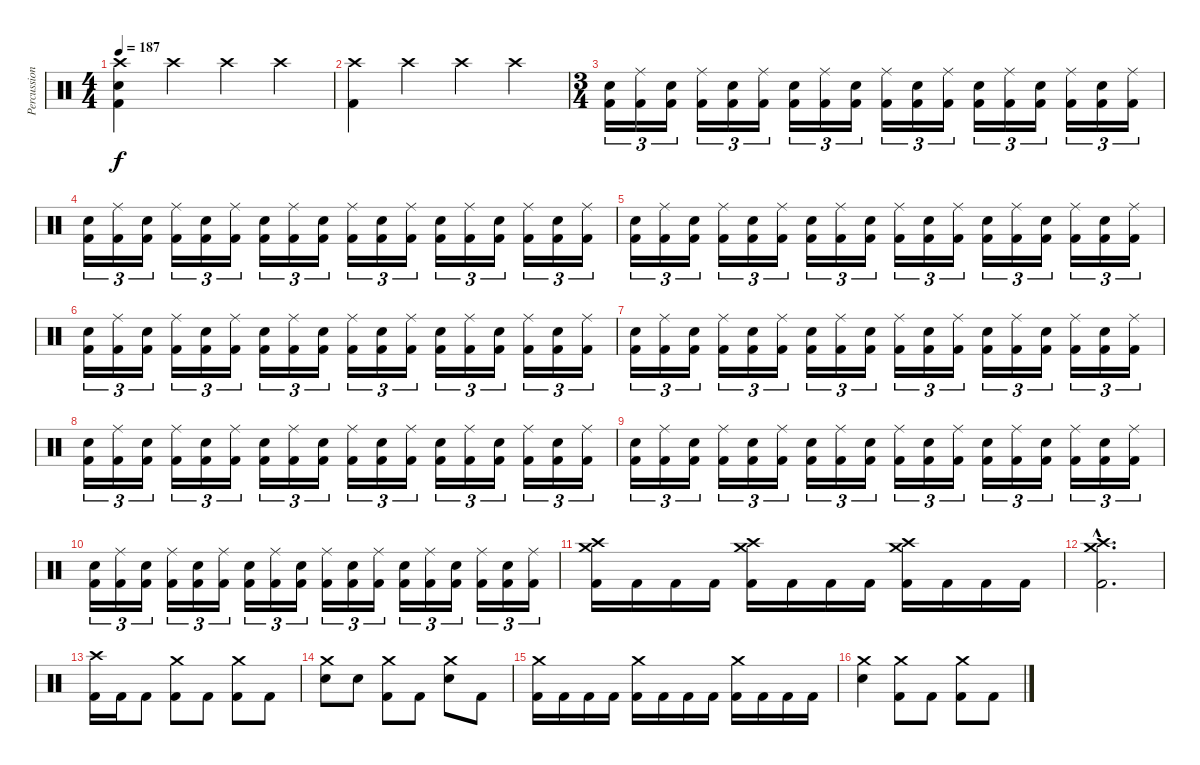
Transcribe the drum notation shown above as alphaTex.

\track ("Percussion" "Percussion") {instrument percussion}
\staff {score}
\articulation defaults
\ts (4 4)
\tempo 187
\clef neutral
\ks c
("Crash high (hit)" "Electric Snare (hit)" "Kick (hit) 2").4{dy f} "Crash high (hit)".4 "Crash high (hit)".4 "Crash high (hit)".4 |
("Crash high (hit)" "Kick (hit) 2").4 "Crash high (hit)".4 "Crash high (hit)".4 "Crash high (hit)".4 |
\ts (3 4)
("Electric Snare (hit)" "Kick (hit) 2").16{tu (3 2)} ("Ride (middle)" "Kick (hit) 2").16{tu (3 2)} ("Electric Snare (hit)" "Kick (hit) 2").16{tu (3 2)} ("Ride (middle)" "Kick (hit) 2").16{tu (3 2)} ("Electric Snare (hit)" "Kick (hit) 2").16{tu (3 2)} ("Ride (middle)" "Kick (hit) 2").16{tu (3 2)} ("Electric Snare (hit)" "Kick (hit) 2").16{tu (3 2)} ("Ride (middle)" "Kick (hit) 2").16{tu (3 2)} ("Electric Snare (hit)" "Kick (hit) 2").16{tu (3 2)} ("Ride (middle)" "Kick (hit) 2").16{tu (3 2)} ("Electric Snare (hit)" "Kick (hit) 2").16{tu (3 2)} ("Ride (middle)" "Kick (hit) 2").16{tu (3 2)} ("Electric Snare (hit)" "Kick (hit) 2").16{tu (3 2)} ("Ride (middle)" "Kick (hit) 2").16{tu (3 2)} ("Electric Snare (hit)" "Kick (hit) 2").16{tu (3 2)} ("Ride (middle)" "Kick (hit) 2").16{tu (3 2)} ("Electric Snare (hit)" "Kick (hit) 2").16{tu (3 2)} ("Ride (middle)" "Kick (hit) 2").16{tu (3 2)} |
("Electric Snare (hit)" "Kick (hit) 2").16{tu (3 2)} ("Ride (middle)" "Kick (hit) 2").16{tu (3 2)} ("Electric Snare (hit)" "Kick (hit) 2").16{tu (3 2)} ("Ride (middle)" "Kick (hit) 2").16{tu (3 2)} ("Electric Snare (hit)" "Kick (hit) 2").16{tu (3 2)} ("Ride (middle)" "Kick (hit) 2").16{tu (3 2)} ("Electric Snare (hit)" "Kick (hit) 2").16{tu (3 2)} ("Ride (middle)" "Kick (hit) 2").16{tu (3 2)} ("Electric Snare (hit)" "Kick (hit) 2").16{tu (3 2)} ("Ride (middle)" "Kick (hit) 2").16{tu (3 2)} ("Electric Snare (hit)" "Kick (hit) 2").16{tu (3 2)} ("Ride (middle)" "Kick (hit) 2").16{tu (3 2)} ("Electric Snare (hit)" "Kick (hit) 2").16{tu (3 2)} ("Ride (middle)" "Kick (hit) 2").16{tu (3 2)} ("Electric Snare (hit)" "Kick (hit) 2").16{tu (3 2)} ("Ride (middle)" "Kick (hit) 2").16{tu (3 2)} ("Electric Snare (hit)" "Kick (hit) 2").16{tu (3 2)} ("Ride (middle)" "Kick (hit) 2").16{tu (3 2)} |
("Electric Snare (hit)" "Kick (hit) 2").16{tu (3 2)} ("Ride (middle)" "Kick (hit) 2").16{tu (3 2)} ("Electric Snare (hit)" "Kick (hit) 2").16{tu (3 2)} ("Ride (middle)" "Kick (hit) 2").16{tu (3 2)} ("Electric Snare (hit)" "Kick (hit) 2").16{tu (3 2)} ("Ride (middle)" "Kick (hit) 2").16{tu (3 2)} ("Electric Snare (hit)" "Kick (hit) 2").16{tu (3 2)} ("Ride (middle)" "Kick (hit) 2").16{tu (3 2)} ("Electric Snare (hit)" "Kick (hit) 2").16{tu (3 2)} ("Ride (middle)" "Kick (hit) 2").16{tu (3 2)} ("Electric Snare (hit)" "Kick (hit) 2").16{tu (3 2)} ("Ride (middle)" "Kick (hit) 2").16{tu (3 2)} ("Electric Snare (hit)" "Kick (hit) 2").16{tu (3 2)} ("Ride (middle)" "Kick (hit) 2").16{tu (3 2)} ("Electric Snare (hit)" "Kick (hit) 2").16{tu (3 2)} ("Ride (middle)" "Kick (hit) 2").16{tu (3 2)} ("Electric Snare (hit)" "Kick (hit) 2").16{tu (3 2)} ("Ride (middle)" "Kick (hit) 2").16{tu (3 2)} |
("Electric Snare (hit)" "Kick (hit) 2").16{tu (3 2)} ("Ride (middle)" "Kick (hit) 2").16{tu (3 2)} ("Electric Snare (hit)" "Kick (hit) 2").16{tu (3 2)} ("Ride (middle)" "Kick (hit) 2").16{tu (3 2)} ("Electric Snare (hit)" "Kick (hit) 2").16{tu (3 2)} ("Ride (middle)" "Kick (hit) 2").16{tu (3 2)} ("Electric Snare (hit)" "Kick (hit) 2").16{tu (3 2)} ("Ride (middle)" "Kick (hit) 2").16{tu (3 2)} ("Electric Snare (hit)" "Kick (hit) 2").16{tu (3 2)} ("Ride (middle)" "Kick (hit) 2").16{tu (3 2)} ("Electric Snare (hit)" "Kick (hit) 2").16{tu (3 2)} ("Ride (middle)" "Kick (hit) 2").16{tu (3 2)} ("Electric Snare (hit)" "Kick (hit) 2").16{tu (3 2)} ("Ride (middle)" "Kick (hit) 2").16{tu (3 2)} ("Electric Snare (hit)" "Kick (hit) 2").16{tu (3 2)} ("Ride (middle)" "Kick (hit) 2").16{tu (3 2)} ("Electric Snare (hit)" "Kick (hit) 2").16{tu (3 2)} ("Ride (middle)" "Kick (hit) 2").16{tu (3 2)} |
("Electric Snare (hit)" "Kick (hit) 2").16{tu (3 2)} ("Ride (middle)" "Kick (hit) 2").16{tu (3 2)} ("Electric Snare (hit)" "Kick (hit) 2").16{tu (3 2)} ("Ride (middle)" "Kick (hit) 2").16{tu (3 2)} ("Electric Snare (hit)" "Kick (hit) 2").16{tu (3 2)} ("Ride (middle)" "Kick (hit) 2").16{tu (3 2)} ("Electric Snare (hit)" "Kick (hit) 2").16{tu (3 2)} ("Ride (middle)" "Kick (hit) 2").16{tu (3 2)} ("Electric Snare (hit)" "Kick (hit) 2").16{tu (3 2)} ("Ride (middle)" "Kick (hit) 2").16{tu (3 2)} ("Electric Snare (hit)" "Kick (hit) 2").16{tu (3 2)} ("Ride (middle)" "Kick (hit) 2").16{tu (3 2)} ("Electric Snare (hit)" "Kick (hit) 2").16{tu (3 2)} ("Ride (middle)" "Kick (hit) 2").16{tu (3 2)} ("Electric Snare (hit)" "Kick (hit) 2").16{tu (3 2)} ("Ride (middle)" "Kick (hit) 2").16{tu (3 2)} ("Electric Snare (hit)" "Kick (hit) 2").16{tu (3 2)} ("Ride (middle)" "Kick (hit) 2").16{tu (3 2)} |
("Electric Snare (hit)" "Kick (hit) 2").16{tu (3 2)} ("Ride (middle)" "Kick (hit) 2").16{tu (3 2)} ("Electric Snare (hit)" "Kick (hit) 2").16{tu (3 2)} ("Ride (middle)" "Kick (hit) 2").16{tu (3 2)} ("Electric Snare (hit)" "Kick (hit) 2").16{tu (3 2)} ("Ride (middle)" "Kick (hit) 2").16{tu (3 2)} ("Electric Snare (hit)" "Kick (hit) 2").16{tu (3 2)} ("Ride (middle)" "Kick (hit) 2").16{tu (3 2)} ("Electric Snare (hit)" "Kick (hit) 2").16{tu (3 2)} ("Ride (middle)" "Kick (hit) 2").16{tu (3 2)} ("Electric Snare (hit)" "Kick (hit) 2").16{tu (3 2)} ("Ride (middle)" "Kick (hit) 2").16{tu (3 2)} ("Electric Snare (hit)" "Kick (hit) 2").16{tu (3 2)} ("Ride (middle)" "Kick (hit) 2").16{tu (3 2)} ("Electric Snare (hit)" "Kick (hit) 2").16{tu (3 2)} ("Ride (middle)" "Kick (hit) 2").16{tu (3 2)} ("Electric Snare (hit)" "Kick (hit) 2").16{tu (3 2)} ("Ride (middle)" "Kick (hit) 2").16{tu (3 2)} |
("Electric Snare (hit)" "Kick (hit) 2").16{tu (3 2)} ("Ride (middle)" "Kick (hit) 2").16{tu (3 2)} ("Electric Snare (hit)" "Kick (hit) 2").16{tu (3 2)} ("Ride (middle)" "Kick (hit) 2").16{tu (3 2)} ("Electric Snare (hit)" "Kick (hit) 2").16{tu (3 2)} ("Ride (middle)" "Kick (hit) 2").16{tu (3 2)} ("Electric Snare (hit)" "Kick (hit) 2").16{tu (3 2)} ("Ride (middle)" "Kick (hit) 2").16{tu (3 2)} ("Electric Snare (hit)" "Kick (hit) 2").16{tu (3 2)} ("Ride (middle)" "Kick (hit) 2").16{tu (3 2)} ("Electric Snare (hit)" "Kick (hit) 2").16{tu (3 2)} ("Ride (middle)" "Kick (hit) 2").16{tu (3 2)} ("Electric Snare (hit)" "Kick (hit) 2").16{tu (3 2)} ("Ride (middle)" "Kick (hit) 2").16{tu (3 2)} ("Electric Snare (hit)" "Kick (hit) 2").16{tu (3 2)} ("Ride (middle)" "Kick (hit) 2").16{tu (3 2)} ("Electric Snare (hit)" "Kick (hit) 2").16{tu (3 2)} ("Ride (middle)" "Kick (hit) 2").16{tu (3 2)} |
("Electric Snare (hit)" "Kick (hit) 2").16{tu (3 2)} ("Ride (middle)" "Kick (hit) 2").16{tu (3 2)} ("Electric Snare (hit)" "Kick (hit) 2").16{tu (3 2)} ("Ride (middle)" "Kick (hit) 2").16{tu (3 2)} ("Electric Snare (hit)" "Kick (hit) 2").16{tu (3 2)} ("Ride (middle)" "Kick (hit) 2").16{tu (3 2)} ("Electric Snare (hit)" "Kick (hit) 2").16{tu (3 2)} ("Ride (middle)" "Kick (hit) 2").16{tu (3 2)} ("Electric Snare (hit)" "Kick (hit) 2").16{tu (3 2)} ("Ride (middle)" "Kick (hit) 2").16{tu (3 2)} ("Electric Snare (hit)" "Kick (hit) 2").16{tu (3 2)} ("Ride (middle)" "Kick (hit) 2").16{tu (3 2)} ("Electric Snare (hit)" "Kick (hit) 2").16{tu (3 2)} ("Ride (middle)" "Kick (hit) 2").16{tu (3 2)} ("Electric Snare (hit)" "Kick (hit) 2").16{tu (3 2)} ("Ride (middle)" "Kick (hit) 2").16{tu (3 2)} ("Electric Snare (hit)" "Kick (hit) 2").16{tu (3 2)} ("Ride (middle)" "Kick (hit) 2").16{tu (3 2)} |
("Crash high (hit)" "Crash medium (hit)" "Kick (hit) 2").16 "Kick (hit) 2".16 "Kick (hit) 2".16 "Kick (hit) 2".16 ("Crash high (hit)" "Crash medium (hit)" "Kick (hit) 2").16 "Kick (hit) 2".16 "Kick (hit) 2".16 "Kick (hit) 2".16 ("Crash high (hit)" "Crash medium (hit)" "Kick (hit) 2").16 "Kick (hit) 2".16 "Kick (hit) 2".16 "Kick (hit) 2".16 |
("Crash high (hit)"{hac} "Crash medium (hit)"{hac} "Kick (hit) 2"{hac}).2{d} |
("Crash high (hit)" "Kick (hit) 2").16 "Kick (hit) 2".16 "Kick (hit) 2".8 ("Crash medium (hit)" "Kick (hit) 2").8 "Kick (hit) 2".8 ("Crash medium (hit)" "Kick (hit) 2").8 "Kick (hit) 2".8 |
("Crash medium (hit)" "Electric Snare (hit)").8 "Electric Snare (hit)".8 ("Crash medium (hit)" "Kick (hit) 2").8 "Kick (hit) 2".8 ("Crash medium (hit)" "Electric Snare (hit)").8 "Kick (hit) 2".8 |
("Crash medium (hit)" "Kick (hit) 2").16 "Kick (hit) 2".16 "Kick (hit) 2".16 "Kick (hit) 2".16 ("Crash medium (hit)" "Kick (hit) 2").16 "Kick (hit) 2".16 "Kick (hit) 2".16 "Kick (hit) 2".16 ("Crash medium (hit)" "Kick (hit) 2").16 "Kick (hit) 2".16 "Kick (hit) 2".16 "Kick (hit) 2".16 |
("Crash medium (hit)" "Electric Snare (hit)").4 ("Crash medium (hit)" "Kick (hit) 2").8 "Kick (hit) 2".8 ("Crash medium (hit)" "Kick (hit) 2").8 "Kick (hit) 2".8
